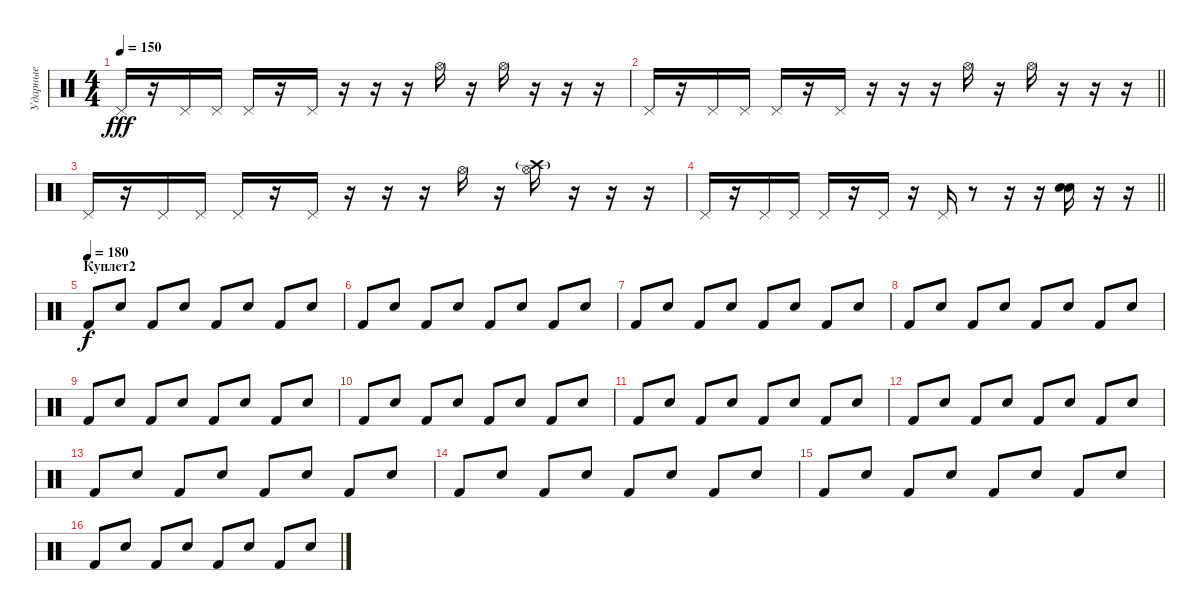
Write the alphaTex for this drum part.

\track ("Ударные" "Ударные") {instrument percussion}
\staff {score}
\articulation defaults
\ts (4 4)
\tempo 150
\clef neutral
\ks c "Pedal Hi-Hat (hit)".16{dy fff}
r.16 "Pedal Hi-Hat (hit)".16 "Pedal Hi-Hat (hit)".16 "Pedal Hi-Hat (hit)".16 r.16 "Pedal Hi-Hat (hit)".16 r.16 r.16 r.16 "Hi-Hat (open)".16 r.16 "Hi-Hat (open)".16 r.16 r.16 r.16 |
\barLineRight lightlight "Pedal Hi-Hat (hit)".16
r.16 "Pedal Hi-Hat (hit)".16 "Pedal Hi-Hat (hit)".16 "Pedal Hi-Hat (hit)".16 r.16 "Pedal Hi-Hat (hit)".16 r.16 r.16 r.16 "Hi-Hat (open)".16 r.16 "Hi-Hat (open)".16 r.16 r.16 r.16 |
"Pedal Hi-Hat (hit)".16 r.16 "Pedal Hi-Hat (hit)".16 "Pedal Hi-Hat (hit)".16 "Pedal Hi-Hat (hit)".16 r.16 "Pedal Hi-Hat (hit)".16 r.16 r.16 r.16 "Hi-Hat (open)".16 r.16 ("Crash high (hit)"{g} "Hi-Hat (open)").16 r.16 r.16 r.16 |
\barLineRight lightlight "Pedal Hi-Hat (hit)".16
r.16 "Pedal Hi-Hat (hit)".16 "Pedal Hi-Hat (hit)".16 "Pedal Hi-Hat (hit)".16 r.16 "Pedal Hi-Hat (hit)".16 r.16 "Pedal Hi-Hat (hit)".16 r.8 r.16 r.16 ("Electric Snare (hit)" "Snare (hit) 2").16 r.16 r.16 |
\section ("" "Куплет2")
\tempo (180)
"Kick (hit) 2".8{dy f} "Electric Snare (hit)".8 "Kick (hit) 2".8 "Electric Snare (hit)".8 "Kick (hit) 2".8 "Electric Snare (hit)".8 "Kick (hit) 2".8 "Electric Snare (hit)".8 |
"Kick (hit) 2".8 "Electric Snare (hit)".8 "Kick (hit) 2".8 "Electric Snare (hit)".8 "Kick (hit) 2".8 "Electric Snare (hit)".8 "Kick (hit) 2".8 "Electric Snare (hit)".8 |
"Kick (hit) 2".8 "Electric Snare (hit)".8 "Kick (hit) 2".8 "Electric Snare (hit)".8 "Kick (hit) 2".8 "Electric Snare (hit)".8 "Kick (hit) 2".8 "Electric Snare (hit)".8 |
"Kick (hit) 2".8 "Electric Snare (hit)".8 "Kick (hit) 2".8 "Electric Snare (hit)".8 "Kick (hit) 2".8 "Electric Snare (hit)".8 "Kick (hit) 2".8 "Electric Snare (hit)".8 |
"Kick (hit) 2".8 "Electric Snare (hit)".8 "Kick (hit) 2".8 "Electric Snare (hit)".8 "Kick (hit) 2".8 "Electric Snare (hit)".8 "Kick (hit) 2".8 "Electric Snare (hit)".8 |
"Kick (hit) 2".8 "Electric Snare (hit)".8 "Kick (hit) 2".8 "Electric Snare (hit)".8 "Kick (hit) 2".8 "Electric Snare (hit)".8 "Kick (hit) 2".8 "Electric Snare (hit)".8 |
"Kick (hit) 2".8 "Electric Snare (hit)".8 "Kick (hit) 2".8 "Electric Snare (hit)".8 "Kick (hit) 2".8 "Electric Snare (hit)".8 "Kick (hit) 2".8 "Electric Snare (hit)".8 |
"Kick (hit) 2".8 "Electric Snare (hit)".8 "Kick (hit) 2".8 "Electric Snare (hit)".8 "Kick (hit) 2".8 "Electric Snare (hit)".8 "Kick (hit) 2".8 "Electric Snare (hit)".8 |
"Kick (hit) 2".8 "Electric Snare (hit)".8 "Kick (hit) 2".8 "Electric Snare (hit)".8 "Kick (hit) 2".8 "Electric Snare (hit)".8 "Kick (hit) 2".8 "Electric Snare (hit)".8 |
"Kick (hit) 2".8 "Electric Snare (hit)".8 "Kick (hit) 2".8 "Electric Snare (hit)".8 "Kick (hit) 2".8 "Electric Snare (hit)".8 "Kick (hit) 2".8 "Electric Snare (hit)".8 |
"Kick (hit) 2".8 "Electric Snare (hit)".8 "Kick (hit) 2".8 "Electric Snare (hit)".8 "Kick (hit) 2".8 "Electric Snare (hit)".8 "Kick (hit) 2".8 "Electric Snare (hit)".8 |
"Kick (hit) 2".8 "Electric Snare (hit)".8 "Kick (hit) 2".8 "Electric Snare (hit)".8 "Kick (hit) 2".8 "Electric Snare (hit)".8 "Kick (hit) 2".8 "Electric Snare (hit)".8
